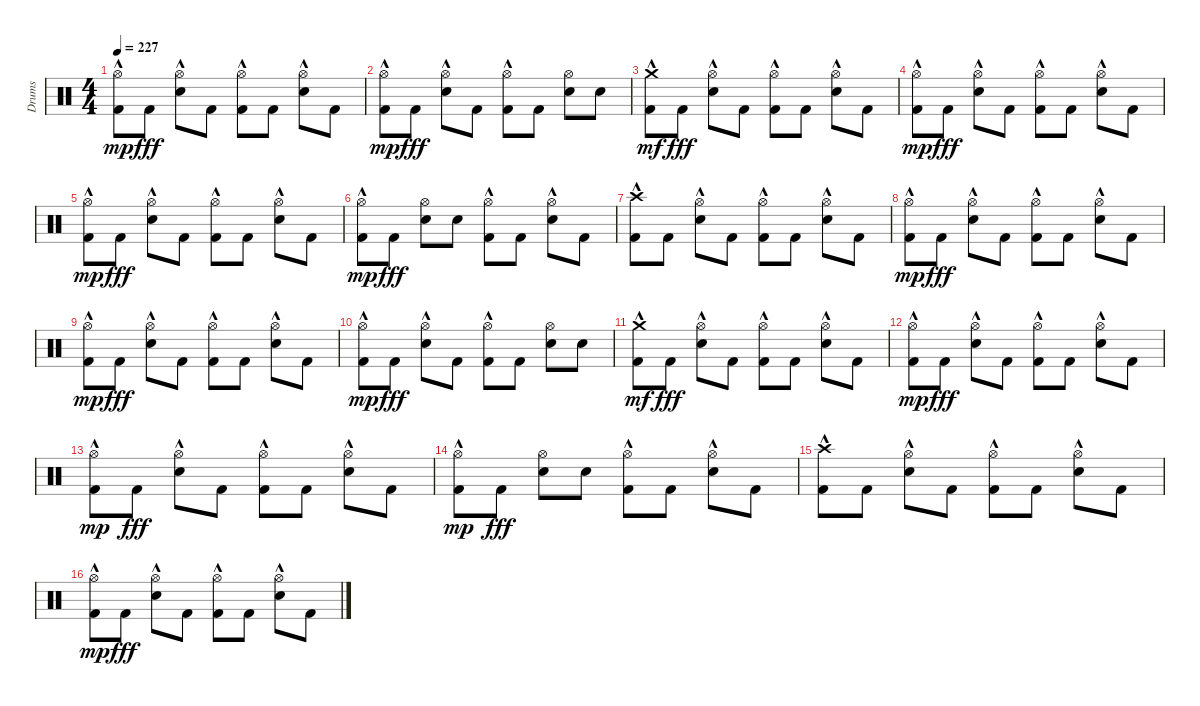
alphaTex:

\track ("Drums" "Drums") {instrument percussion}
\staff {score}
\articulation defaults
\ts (4 4)
\tempo 227
\clef neutral
\ks c
("Kick (hit) 2" "Hi-Hat (open)"{hac}).8{dy mp} "Kick (hit) 2".8{dy fff} ("Hi-Hat (open)"{hac} "Snare (hit) 2"{hac}).8 "Kick (hit) 2".8 ("Hi-Hat (open)"{hac} "Kick (hit) 2").8 "Kick (hit) 2".8 ("Hi-Hat (open)"{hac} "Snare (hit) 2"{hac}).8 "Kick (hit) 2".8 |
("Kick (hit) 2" "Hi-Hat (open)"{hac}).8{dy mp} "Kick (hit) 2".8{dy fff} ("Hi-Hat (open)"{hac} "Snare (hit) 2"{hac}).8 "Kick (hit) 2".8 ("Hi-Hat (open)"{hac} "Kick (hit) 2").8 "Kick (hit) 2".8 ("Hi-Hat (open)" "Snare (hit) 2").8 "Snare (hit) 2".8 |
("Kick (hit) 2" "Crash medium (hit)"{hac}).8{dy mf} "Kick (hit) 2".8{dy fff} ("Hi-Hat (open)"{hac} "Snare (hit) 2"{hac}).8 "Kick (hit) 2".8 ("Hi-Hat (open)"{hac} "Kick (hit) 2").8 "Kick (hit) 2".8 ("Hi-Hat (open)"{hac} "Snare (hit) 2"{hac}).8 "Kick (hit) 2".8 |
("Kick (hit) 2" "Hi-Hat (open)"{hac}).8{dy mp} "Kick (hit) 2".8{dy fff} ("Hi-Hat (open)"{hac} "Snare (hit) 2"{hac}).8 "Kick (hit) 2".8 ("Hi-Hat (open)"{hac} "Kick (hit) 2").8 "Kick (hit) 2".8 ("Hi-Hat (open)"{hac} "Snare (hit) 2"{hac}).8 "Kick (hit) 2".8 |
("Kick (hit) 2" "Hi-Hat (open)"{hac}).8{dy mp} "Kick (hit) 2".8{dy fff} ("Hi-Hat (open)"{hac} "Snare (hit) 2"{hac}).8 "Kick (hit) 2".8 ("Hi-Hat (open)"{hac} "Kick (hit) 2").8 "Kick (hit) 2".8 ("Hi-Hat (open)"{hac} "Snare (hit) 2"{hac}).8 "Kick (hit) 2".8 |
("Kick (hit) 2" "Hi-Hat (open)"{hac}).8{dy mp} "Kick (hit) 2".8{dy fff} ("Hi-Hat (open)" "Snare (hit) 2").8 "Snare (hit) 2".8 ("Hi-Hat (open)"{hac} "Kick (hit) 2").8 "Kick (hit) 2".8 ("Hi-Hat (open)"{hac} "Snare (hit) 2"{hac}).8 "Kick (hit) 2".8 |
("Kick (hit) 2" "Crash high (hit)"{hac}).8 "Kick (hit) 2".8 ("Hi-Hat (open)"{hac} "Snare (hit) 2"{hac}).8 "Kick (hit) 2".8 ("Hi-Hat (open)"{hac} "Kick (hit) 2").8 "Kick (hit) 2".8 ("Hi-Hat (open)"{hac} "Snare (hit) 2"{hac}).8 "Kick (hit) 2".8 |
("Kick (hit) 2" "Hi-Hat (open)"{hac}).8{dy mp} "Kick (hit) 2".8{dy fff} ("Hi-Hat (open)"{hac} "Snare (hit) 2"{hac}).8 "Kick (hit) 2".8 ("Hi-Hat (open)"{hac} "Kick (hit) 2").8 "Kick (hit) 2".8 ("Hi-Hat (open)"{hac} "Snare (hit) 2"{hac}).8 "Kick (hit) 2".8 |
("Kick (hit) 2" "Hi-Hat (open)"{hac}).8{dy mp} "Kick (hit) 2".8{dy fff} ("Hi-Hat (open)"{hac} "Snare (hit) 2"{hac}).8 "Kick (hit) 2".8 ("Hi-Hat (open)"{hac} "Kick (hit) 2").8 "Kick (hit) 2".8 ("Hi-Hat (open)"{hac} "Snare (hit) 2"{hac}).8 "Kick (hit) 2".8 |
("Kick (hit) 2" "Hi-Hat (open)"{hac}).8{dy mp} "Kick (hit) 2".8{dy fff} ("Hi-Hat (open)"{hac} "Snare (hit) 2"{hac}).8 "Kick (hit) 2".8 ("Hi-Hat (open)"{hac} "Kick (hit) 2").8 "Kick (hit) 2".8 ("Hi-Hat (open)" "Snare (hit) 2").8 "Snare (hit) 2".8 |
("Kick (hit) 2" "Crash medium (hit)"{hac}).8{dy mf} "Kick (hit) 2".8{dy fff} ("Hi-Hat (open)"{hac} "Snare (hit) 2"{hac}).8 "Kick (hit) 2".8 ("Hi-Hat (open)"{hac} "Kick (hit) 2").8 "Kick (hit) 2".8 ("Hi-Hat (open)"{hac} "Snare (hit) 2"{hac}).8 "Kick (hit) 2".8 |
("Kick (hit) 2" "Hi-Hat (open)"{hac}).8{dy mp} "Kick (hit) 2".8{dy fff} ("Hi-Hat (open)"{hac} "Snare (hit) 2"{hac}).8 "Kick (hit) 2".8 ("Hi-Hat (open)"{hac} "Kick (hit) 2").8 "Kick (hit) 2".8 ("Hi-Hat (open)"{hac} "Snare (hit) 2"{hac}).8 "Kick (hit) 2".8 |
("Kick (hit) 2" "Hi-Hat (open)"{hac}).8{dy mp} "Kick (hit) 2".8{dy fff} ("Hi-Hat (open)"{hac} "Snare (hit) 2"{hac}).8 "Kick (hit) 2".8 ("Hi-Hat (open)"{hac} "Kick (hit) 2").8 "Kick (hit) 2".8 ("Hi-Hat (open)"{hac} "Snare (hit) 2"{hac}).8 "Kick (hit) 2".8 |
("Kick (hit) 2" "Hi-Hat (open)"{hac}).8{dy mp} "Kick (hit) 2".8{dy fff} ("Hi-Hat (open)" "Snare (hit) 2").8 "Snare (hit) 2".8 ("Hi-Hat (open)"{hac} "Kick (hit) 2").8 "Kick (hit) 2".8 ("Hi-Hat (open)"{hac} "Snare (hit) 2"{hac}).8 "Kick (hit) 2".8 |
("Kick (hit) 2" "Crash high (hit)"{hac}).8 "Kick (hit) 2".8 ("Hi-Hat (open)"{hac} "Snare (hit) 2"{hac}).8 "Kick (hit) 2".8 ("Hi-Hat (open)"{hac} "Kick (hit) 2").8 "Kick (hit) 2".8 ("Hi-Hat (open)"{hac} "Snare (hit) 2"{hac}).8 "Kick (hit) 2".8 |
("Kick (hit) 2" "Hi-Hat (open)"{hac}).8{dy mp} "Kick (hit) 2".8{dy fff} ("Hi-Hat (open)"{hac} "Snare (hit) 2"{hac}).8 "Kick (hit) 2".8 ("Hi-Hat (open)"{hac} "Kick (hit) 2").8 "Kick (hit) 2".8 ("Hi-Hat (open)"{hac} "Snare (hit) 2"{hac}).8 "Kick (hit) 2".8
